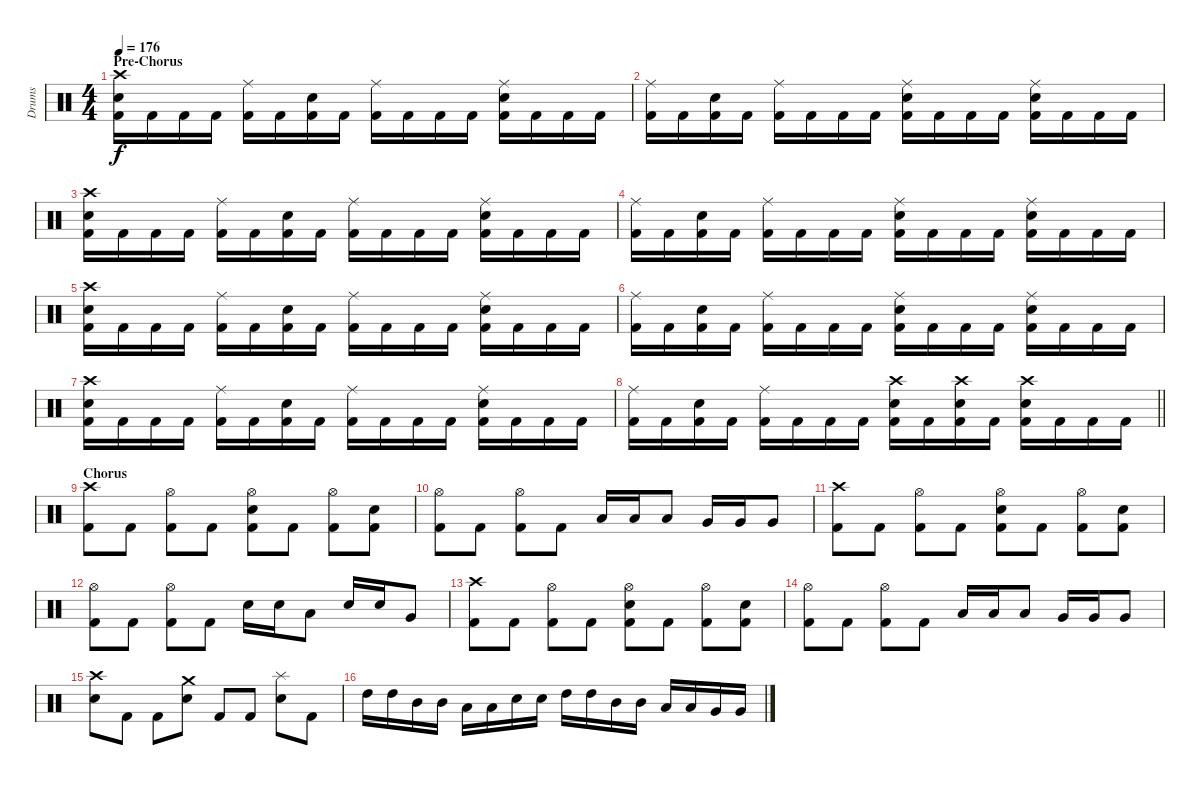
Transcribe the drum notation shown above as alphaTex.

\track ("Drums" "Drums") {instrument percussion}
\staff {score}
\articulation defaults
\ts (4 4)
\section ("" "Pre-Chorus")
\tempo 176
\clef neutral
\ks c
("Crash high (hit)" "Snare (hit) 2" "Kick (hit) 2").16{dy f} "Kick (hit) 2".16 "Kick (hit) 2".16 "Kick (hit) 2".16 ("Ride (middle)" "Kick (hit) 2").16 "Kick (hit) 2".16 ("Snare (hit) 2" "Kick (hit) 2").16 "Kick (hit) 2".16 ("Ride (middle)" "Kick (hit) 2").16 "Kick (hit) 2".16 "Kick (hit) 2".16 "Kick (hit) 2".16 ("Ride (middle)" "Snare (hit) 2" "Kick (hit) 2").16 "Kick (hit) 2".16 "Kick (hit) 2".16 "Kick (hit) 2".16 |
("Ride (middle)" "Kick (hit) 2").16 "Kick (hit) 2".16 ("Snare (hit) 2" "Kick (hit) 2").16 "Kick (hit) 2".16 ("Ride (middle)" "Kick (hit) 2").16 "Kick (hit) 2".16 "Kick (hit) 2".16 "Kick (hit) 2".16 ("Ride (middle)" "Snare (hit) 2" "Kick (hit) 2").16 "Kick (hit) 2".16 "Kick (hit) 2".16 "Kick (hit) 2".16 ("Ride (middle)" "Snare (hit) 2" "Kick (hit) 2").16 "Kick (hit) 2".16 "Kick (hit) 2".16 "Kick (hit) 2".16 |
("Crash high (hit)" "Snare (hit) 2" "Kick (hit) 2").16 "Kick (hit) 2".16 "Kick (hit) 2".16 "Kick (hit) 2".16 ("Ride (middle)" "Kick (hit) 2").16 "Kick (hit) 2".16 ("Snare (hit) 2" "Kick (hit) 2").16 "Kick (hit) 2".16 ("Ride (middle)" "Kick (hit) 2").16 "Kick (hit) 2".16 "Kick (hit) 2".16 "Kick (hit) 2".16 ("Ride (middle)" "Snare (hit) 2" "Kick (hit) 2").16 "Kick (hit) 2".16 "Kick (hit) 2".16 "Kick (hit) 2".16 |
("Ride (middle)" "Kick (hit) 2").16 "Kick (hit) 2".16 ("Snare (hit) 2" "Kick (hit) 2").16 "Kick (hit) 2".16 ("Ride (middle)" "Kick (hit) 2").16 "Kick (hit) 2".16 "Kick (hit) 2".16 "Kick (hit) 2".16 ("Ride (middle)" "Snare (hit) 2" "Kick (hit) 2").16 "Kick (hit) 2".16 "Kick (hit) 2".16 "Kick (hit) 2".16 ("Ride (middle)" "Snare (hit) 2" "Kick (hit) 2").16 "Kick (hit) 2".16 "Kick (hit) 2".16 "Kick (hit) 2".16 |
("Crash high (hit)" "Snare (hit) 2" "Kick (hit) 2").16 "Kick (hit) 2".16 "Kick (hit) 2".16 "Kick (hit) 2".16 ("Ride (middle)" "Kick (hit) 2").16 "Kick (hit) 2".16 ("Snare (hit) 2" "Kick (hit) 2").16 "Kick (hit) 2".16 ("Ride (middle)" "Kick (hit) 2").16 "Kick (hit) 2".16 "Kick (hit) 2".16 "Kick (hit) 2".16 ("Ride (middle)" "Snare (hit) 2" "Kick (hit) 2").16 "Kick (hit) 2".16 "Kick (hit) 2".16 "Kick (hit) 2".16 |
("Ride (middle)" "Kick (hit) 2").16 "Kick (hit) 2".16 ("Snare (hit) 2" "Kick (hit) 2").16 "Kick (hit) 2".16 ("Ride (middle)" "Kick (hit) 2").16 "Kick (hit) 2".16 "Kick (hit) 2".16 "Kick (hit) 2".16 ("Ride (middle)" "Snare (hit) 2" "Kick (hit) 2").16 "Kick (hit) 2".16 "Kick (hit) 2".16 "Kick (hit) 2".16 ("Ride (middle)" "Snare (hit) 2" "Kick (hit) 2").16 "Kick (hit) 2".16 "Kick (hit) 2".16 "Kick (hit) 2".16 |
("Crash high (hit)" "Snare (hit) 2" "Kick (hit) 2").16 "Kick (hit) 2".16 "Kick (hit) 2".16 "Kick (hit) 2".16 ("Ride (middle)" "Kick (hit) 2").16 "Kick (hit) 2".16 ("Snare (hit) 2" "Kick (hit) 2").16 "Kick (hit) 2".16 ("Ride (middle)" "Kick (hit) 2").16 "Kick (hit) 2".16 "Kick (hit) 2".16 "Kick (hit) 2".16 ("Ride (middle)" "Snare (hit) 2" "Kick (hit) 2").16 "Kick (hit) 2".16 "Kick (hit) 2".16 "Kick (hit) 2".16 |
\barLineRight lightlight
("Ride (middle)" "Kick (hit) 2").16 "Kick (hit) 2".16 ("Snare (hit) 2" "Kick (hit) 2").16 "Kick (hit) 2".16 ("Ride (middle)" "Kick (hit) 2").16 "Kick (hit) 2".16 "Kick (hit) 2".16 "Kick (hit) 2".16 ("Crash high (hit)" "Snare (hit) 2" "Kick (hit) 2").16 "Kick (hit) 2".16 ("Crash high (hit)" "Snare (hit) 2" "Kick (hit) 2").16 "Kick (hit) 2".16 ("Crash high (hit)" "Snare (hit) 2" "Kick (hit) 2").16 "Kick (hit) 2".16 "Kick (hit) 2".16 "Kick (hit) 2".16 |
\section ("" "Chorus")
("Crash high (hit)" "Kick (hit) 2").8 "Kick (hit) 2".8 ("Hi-Hat (open)" "Kick (hit) 2").8 "Kick (hit) 2".8 ("Hi-Hat (open)" "Snare (hit) 2" "Kick (hit) 2").8 "Kick (hit) 2".8 ("Hi-Hat (open)" "Kick (hit) 2").8 ("Snare (hit) 2" "Kick (hit) 2").8 |
("Hi-Hat (open)" "Kick (hit) 2").8 "Kick (hit) 2".8 ("Hi-Hat (open)" "Kick (hit) 2").8 "Kick (hit) 2".8 "Low Tom (hit)".16 "Low Tom (hit)".16 "Low Tom (hit)".8 "Very Low Tom (hit)".16 "Very Low Tom (hit)".16 "Very Low Tom (hit)".8 |
("Crash high (hit)" "Kick (hit) 2").8 "Kick (hit) 2".8 ("Hi-Hat (open)" "Kick (hit) 2").8 "Kick (hit) 2".8 ("Hi-Hat (open)" "Snare (hit) 2" "Kick (hit) 2").8 "Kick (hit) 2".8 ("Hi-Hat (open)" "Kick (hit) 2").8 ("Snare (hit) 2" "Kick (hit) 2").8 |
("Hi-Hat (open)" "Kick (hit) 2").8 "Kick (hit) 2".8 ("Hi-Hat (open)" "Kick (hit) 2").8 "Kick (hit) 2".8 "Snare (hit) 2".16 "Snare (hit) 2".16 "Low Tom (hit)".8 "Snare (hit) 2".16 "Snare (hit) 2".16 "Very Low Tom (hit)".8 |
("Crash high (hit)" "Kick (hit) 2").8 "Kick (hit) 2".8 ("Hi-Hat (open)" "Kick (hit) 2").8 "Kick (hit) 2".8 ("Hi-Hat (open)" "Snare (hit) 2" "Kick (hit) 2").8 "Kick (hit) 2".8 ("Hi-Hat (open)" "Kick (hit) 2").8 ("Snare (hit) 2" "Kick (hit) 2").8 |
("Hi-Hat (open)" "Kick (hit) 2").8 "Kick (hit) 2".8 ("Hi-Hat (open)" "Kick (hit) 2").8 "Kick (hit) 2".8 "Low Tom (hit)".16 "Low Tom (hit)".16 "Low Tom (hit)".8 "Very Low Tom (hit)".16 "Very Low Tom (hit)".16 "Very Low Tom (hit)".8 |
("Crash high (hit)" "Snare (hit) 2").8 "Kick (hit) 2".8 "Kick (hit) 2".8 ("Crash medium (hit)" "Snare (hit) 2").8 "Kick (hit) 2".8 "Kick (hit) 2".8 ("Splash (hit)" "Snare (hit) 2").8 "Kick (hit) 2".8 |
"High Tom (hit)".16 "High Tom (hit)".16 "Mid Tom (hit)".16 "Mid Tom (hit)".16 "Low Tom (hit)".16 "Low Tom (hit)".16 "Snare (hit) 2".16 "Snare (hit) 2".16 "High Tom (hit)".16 "High Tom (hit)".16 "Mid Tom (hit)".16 "Mid Tom (hit)".16 "Low Tom (hit)".16 "Low Tom (hit)".16 "Very Low Tom (hit)".16 "Very Low Tom (hit)".16
